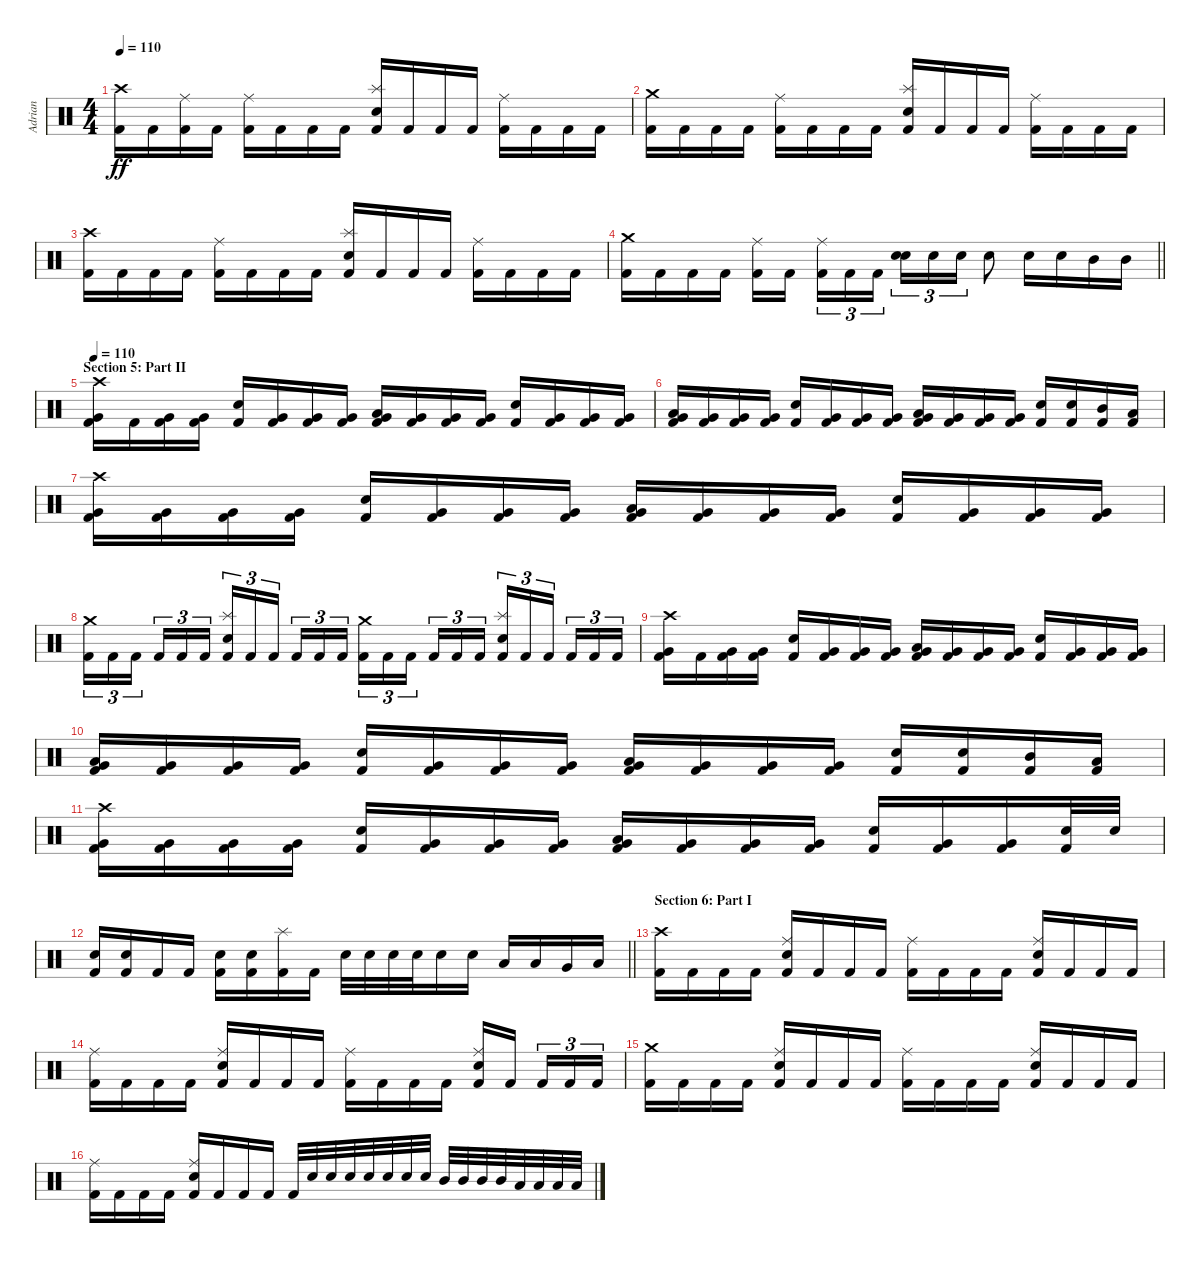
\track ("Adrian" "Adrian") {instrument percussion}
\staff {score}
\articulation defaults
\ts (4 4)
\tempo 110
\clef neutral
\ks c
("Crash high (hit)" "Kick (hit) 2").16{dy ff} "Kick (hit) 2".16 ("Ride (middle)" "Kick (hit) 2").16 "Kick (hit) 2".16 ("Ride (middle)" "Kick (hit) 2").16 "Kick (hit) 2".16 "Kick (hit) 2".16 "Kick (hit) 2".16 ("Splash (hit)" "Electric Snare (hit)" "Kick (hit) 2").16 "Kick (hit) 2".16 "Kick (hit) 2".16 "Kick (hit) 2".16 ("Ride (middle)" "Kick (hit) 2").16 "Kick (hit) 2".16 "Kick (hit) 2".16 "Kick (hit) 2".16 |
("Crash medium (hit)" "Kick (hit) 2").16 "Kick (hit) 2".16 "Kick (hit) 2".16 "Kick (hit) 2".16 ("Ride (middle)" "Kick (hit) 2").16 "Kick (hit) 2".16 "Kick (hit) 2".16 "Kick (hit) 2".16 ("Splash (hit)" "Electric Snare (hit)" "Kick (hit) 2").16 "Kick (hit) 2".16 "Kick (hit) 2".16 "Kick (hit) 2".16 ("Ride (middle)" "Kick (hit) 2").16 "Kick (hit) 2".16 "Kick (hit) 2".16 "Kick (hit) 2".16 |
("Crash high (hit)" "Kick (hit) 2").16 "Kick (hit) 2".16 "Kick (hit) 2".16 "Kick (hit) 2".16 ("Ride (middle)" "Kick (hit) 2").16 "Kick (hit) 2".16 "Kick (hit) 2".16 "Kick (hit) 2".16 ("Splash (hit)" "Electric Snare (hit)" "Kick (hit) 2").16 "Kick (hit) 2".16 "Kick (hit) 2".16 "Kick (hit) 2".16 ("Ride (middle)" "Kick (hit) 2").16 "Kick (hit) 2".16 "Kick (hit) 2".16 "Kick (hit) 2".16 |
\barLineRight lightlight
("Crash medium (hit)" "Kick (hit) 2").16 "Kick (hit) 2".16 "Kick (hit) 2".16 "Kick (hit) 2".16 ("Ride (middle)" "Kick (hit) 2").16 "Kick (hit) 2".16{beam splitsecondary} ("Ride (middle)" "Kick (hit) 2").16{tu (3 2)} "Kick (hit) 2".16{tu (3 2)} "Kick (hit) 2".16{tu (3 2)} ("Electric Snare (hit)" "Electric Snare (hit)").16{tu (3 2)} "Electric Snare (hit)".16{tu (3 2)} "Electric Snare (hit)".16{tu (3 2)} "Electric Snare (hit)".8 "Electric Snare (hit)".16 "Electric Snare (hit)".16 "Mid Tom (hit)".16 "Mid Tom (hit)".16 |
\section ("" "Section 5: Part II")
\tempo 110
("Crash high (hit)" "Very Low Tom (hit)" "Kick (hit) 2").16 "Kick (hit) 2".16 ("Very Low Tom (hit)" "Kick (hit) 2").16 ("Very Low Tom (hit)" "Kick (hit) 2").16 ("Electric Snare (hit)" "Kick (hit) 2").16 ("Very Low Tom (hit)" "Kick (hit) 2").16 ("Very Low Tom (hit)" "Kick (hit) 2").16 ("Very Low Tom (hit)" "Kick (hit) 2").16 ("Low Tom (hit)" "Very Low Tom (hit)" "Kick (hit) 2").16 ("Very Low Tom (hit)" "Kick (hit) 2").16 ("Very Low Tom (hit)" "Kick (hit) 2").16 ("Very Low Tom (hit)" "Kick (hit) 2").16 ("Electric Snare (hit)" "Kick (hit) 2").16 ("Very Low Tom (hit)" "Kick (hit) 2").16 ("Very Low Tom (hit)" "Kick (hit) 2").16 ("Very Low Tom (hit)" "Kick (hit) 2").16 |
("Low Tom (hit)" "Very Low Tom (hit)" "Kick (hit) 2").16 ("Very Low Tom (hit)" "Kick (hit) 2").16 ("Very Low Tom (hit)" "Kick (hit) 2").16 ("Very Low Tom (hit)" "Kick (hit) 2").16 ("Electric Snare (hit)" "Kick (hit) 2").16 ("Very Low Tom (hit)" "Kick (hit) 2").16 ("Very Low Tom (hit)" "Kick (hit) 2").16 ("Very Low Tom (hit)" "Kick (hit) 2").16 ("Low Tom (hit)" "Very Low Tom (hit)" "Kick (hit) 2").16 ("Very Low Tom (hit)" "Kick (hit) 2").16 ("Very Low Tom (hit)" "Kick (hit) 2").16 ("Very Low Tom (hit)" "Kick (hit) 2").16 ("Electric Snare (hit)" "Kick (hit) 2").16 ("Electric Snare (hit)" "Kick (hit) 2").16 ("Mid Tom (hit)" "Kick (hit) 2").16 ("Low Tom (hit)" "Kick (hit) 2").16 |
("Crash high (hit)" "Very Low Tom (hit)" "Kick (hit) 2").16 ("Very Low Tom (hit)" "Kick (hit) 2").16 ("Very Low Tom (hit)" "Kick (hit) 2").16 ("Very Low Tom (hit)" "Kick (hit) 2").16 ("Electric Snare (hit)" "Kick (hit) 2").16 ("Very Low Tom (hit)" "Kick (hit) 2").16 ("Very Low Tom (hit)" "Kick (hit) 2").16 ("Very Low Tom (hit)" "Kick (hit) 2").16 ("Low Tom (hit)" "Very Low Tom (hit)" "Kick (hit) 2").16 ("Very Low Tom (hit)" "Kick (hit) 2").16 ("Very Low Tom (hit)" "Kick (hit) 2").16 ("Very Low Tom (hit)" "Kick (hit) 2").16 ("Electric Snare (hit)" "Kick (hit) 2").16 ("Very Low Tom (hit)" "Kick (hit) 2").16 ("Very Low Tom (hit)" "Kick (hit) 2").16 ("Very Low Tom (hit)" "Kick (hit) 2").16 |
("Crash medium (hit)" "Kick (hit) 2").16{tu (3 2)} "Kick (hit) 2".16{tu (3 2)} "Kick (hit) 2".16{tu (3 2) beam splitsecondary} "Kick (hit) 2".16{tu (3 2)} "Kick (hit) 2".16{tu (3 2)} "Kick (hit) 2".16{tu (3 2)} ("Splash (hit)" "Electric Snare (hit)" "Kick (hit) 2").16{tu (3 2)} "Kick (hit) 2".16{tu (3 2)} "Kick (hit) 2".16{tu (3 2) beam splitsecondary} "Kick (hit) 2".16{tu (3 2)} "Kick (hit) 2".16{tu (3 2)} "Kick (hit) 2".16{tu (3 2)} ("Crash medium (hit)" "Kick (hit) 2").16{tu (3 2)} "Kick (hit) 2".16{tu (3 2)} "Kick (hit) 2".16{tu (3 2) beam splitsecondary} "Kick (hit) 2".16{tu (3 2)} "Kick (hit) 2".16{tu (3 2)} "Kick (hit) 2".16{tu (3 2)} ("Splash (hit)" "Electric Snare (hit)" "Kick (hit) 2").16{tu (3 2)} "Kick (hit) 2".16{tu (3 2)} "Kick (hit) 2".16{tu (3 2) beam splitsecondary} "Kick (hit) 2".16{tu (3 2)} "Kick (hit) 2".16{tu (3 2)} "Kick (hit) 2".16{tu (3 2)} |
("Crash high (hit)" "Very Low Tom (hit)" "Kick (hit) 2").16 "Kick (hit) 2".16 ("Very Low Tom (hit)" "Kick (hit) 2").16 ("Very Low Tom (hit)" "Kick (hit) 2").16 ("Electric Snare (hit)" "Kick (hit) 2").16 ("Very Low Tom (hit)" "Kick (hit) 2").16 ("Very Low Tom (hit)" "Kick (hit) 2").16 ("Very Low Tom (hit)" "Kick (hit) 2").16 ("Low Tom (hit)" "Very Low Tom (hit)" "Kick (hit) 2").16 ("Very Low Tom (hit)" "Kick (hit) 2").16 ("Very Low Tom (hit)" "Kick (hit) 2").16 ("Very Low Tom (hit)" "Kick (hit) 2").16 ("Electric Snare (hit)" "Kick (hit) 2").16 ("Very Low Tom (hit)" "Kick (hit) 2").16 ("Very Low Tom (hit)" "Kick (hit) 2").16 ("Very Low Tom (hit)" "Kick (hit) 2").16 |
("Low Tom (hit)" "Very Low Tom (hit)" "Kick (hit) 2").16 ("Very Low Tom (hit)" "Kick (hit) 2").16 ("Very Low Tom (hit)" "Kick (hit) 2").16 ("Very Low Tom (hit)" "Kick (hit) 2").16 ("Electric Snare (hit)" "Kick (hit) 2").16 ("Very Low Tom (hit)" "Kick (hit) 2").16 ("Very Low Tom (hit)" "Kick (hit) 2").16 ("Very Low Tom (hit)" "Kick (hit) 2").16 ("Low Tom (hit)" "Very Low Tom (hit)" "Kick (hit) 2").16 ("Very Low Tom (hit)" "Kick (hit) 2").16 ("Very Low Tom (hit)" "Kick (hit) 2").16 ("Very Low Tom (hit)" "Kick (hit) 2").16 ("Electric Snare (hit)" "Kick (hit) 2").16 ("Electric Snare (hit)" "Kick (hit) 2").16 ("Mid Tom (hit)" "Kick (hit) 2").16 ("Low Tom (hit)" "Kick (hit) 2").16 |
("Crash high (hit)" "Very Low Tom (hit)" "Kick (hit) 2").16 ("Very Low Tom (hit)" "Kick (hit) 2").16 ("Very Low Tom (hit)" "Kick (hit) 2").16 ("Very Low Tom (hit)" "Kick (hit) 2").16 ("Electric Snare (hit)" "Kick (hit) 2").16 ("Very Low Tom (hit)" "Kick (hit) 2").16 ("Very Low Tom (hit)" "Kick (hit) 2").16 ("Very Low Tom (hit)" "Kick (hit) 2").16 ("Low Tom (hit)" "Very Low Tom (hit)" "Kick (hit) 2").16 ("Very Low Tom (hit)" "Kick (hit) 2").16 ("Very Low Tom (hit)" "Kick (hit) 2").16 ("Very Low Tom (hit)" "Kick (hit) 2").16 ("Electric Snare (hit)" "Kick (hit) 2").16 ("Very Low Tom (hit)" "Kick (hit) 2").16 ("Very Low Tom (hit)" "Kick (hit) 2").16 ("Electric Snare (hit)" "Kick (hit) 2").32 "Electric Snare (hit)".32 |
\barLineRight lightlight
("Electric Snare (hit)" "Kick (hit) 2").16 ("Electric Snare (hit)" "Kick (hit) 2").16 "Kick (hit) 2".16 "Kick (hit) 2".16 ("Electric Snare (hit)" "Kick (hit) 2").16 ("Electric Snare (hit)" "Kick (hit) 2").16 ("Splash (hit)" "Kick (hit) 2").16 "Kick (hit) 2".16 "Electric Snare (hit)".32 "Electric Snare (hit)".32 "Electric Snare (hit)".32 "Electric Snare (hit)".32 "Electric Snare (hit)".16 "Electric Snare (hit)".16 "Low Tom (hit)".16 "Low Tom (hit)".16 "Very Low Tom (hit)".16 "Low Floor Tom (hit)".16 |
\section ("" "Section 6: Part I")
("Crash high (hit)" "Kick (hit) 2").16 "Kick (hit) 2".16 "Kick (hit) 2".16 "Kick (hit) 2".16 ("Ride (middle)" "Electric Snare (hit)" "Kick (hit) 2").16 "Kick (hit) 2".16 "Kick (hit) 2".16 "Kick (hit) 2".16 ("Ride (middle)" "Kick (hit) 2").16 "Kick (hit) 2".16 "Kick (hit) 2".16 "Kick (hit) 2".16 ("Ride (middle)" "Electric Snare (hit)" "Kick (hit) 2").16 "Kick (hit) 2".16 "Kick (hit) 2".16 "Kick (hit) 2".16 |
("Ride (middle)" "Kick (hit) 2").16 "Kick (hit) 2".16 "Kick (hit) 2".16 "Kick (hit) 2".16 ("Ride (middle)" "Electric Snare (hit)" "Kick (hit) 2").16 "Kick (hit) 2".16 "Kick (hit) 2".16 "Kick (hit) 2".16 ("Ride (middle)" "Kick (hit) 2").16 "Kick (hit) 2".16 "Kick (hit) 2".16 "Kick (hit) 2".16 ("Ride (middle)" "Electric Snare (hit)" "Kick (hit) 2").16 "Kick (hit) 2".16{beam splitsecondary} "Kick (hit) 2".16{tu (3 2)} "Kick (hit) 2".16{tu (3 2)} "Kick (hit) 2".16{tu (3 2)} |
("Crash medium (hit)" "Kick (hit) 2").16 "Kick (hit) 2".16 "Kick (hit) 2".16 "Kick (hit) 2".16 ("Ride (middle)" "Electric Snare (hit)" "Kick (hit) 2").16 "Kick (hit) 2".16 "Kick (hit) 2".16 "Kick (hit) 2".16 ("Ride (middle)" "Kick (hit) 2").16 "Kick (hit) 2".16 "Kick (hit) 2".16 "Kick (hit) 2".16 ("Ride (middle)" "Electric Snare (hit)" "Kick (hit) 2").16 "Kick (hit) 2".16 "Kick (hit) 2".16 "Kick (hit) 2".16 |
("Ride (middle)" "Kick (hit) 2").16 "Kick (hit) 2".16 "Kick (hit) 2".16 "Kick (hit) 2".16 ("Ride (middle)" "Electric Snare (hit)" "Kick (hit) 2").16 "Kick (hit) 2".16 "Kick (hit) 2".16 "Kick (hit) 2".16 "Kick (hit) 2".32 "Electric Snare (hit)".32 "Electric Snare (hit)".32 "Electric Snare (hit)".32 "Electric Snare (hit)".32 "Electric Snare (hit)".32 "Electric Snare (hit)".32 "Electric Snare (hit)".32 "Mid Tom (hit)".32 "Mid Tom (hit)".32 "Mid Tom (hit)".32 "Mid Tom (hit)".32 "Low Tom (hit)".32 "Low Tom (hit)".32 "Low Tom (hit)".32 "Low Tom (hit)".32
